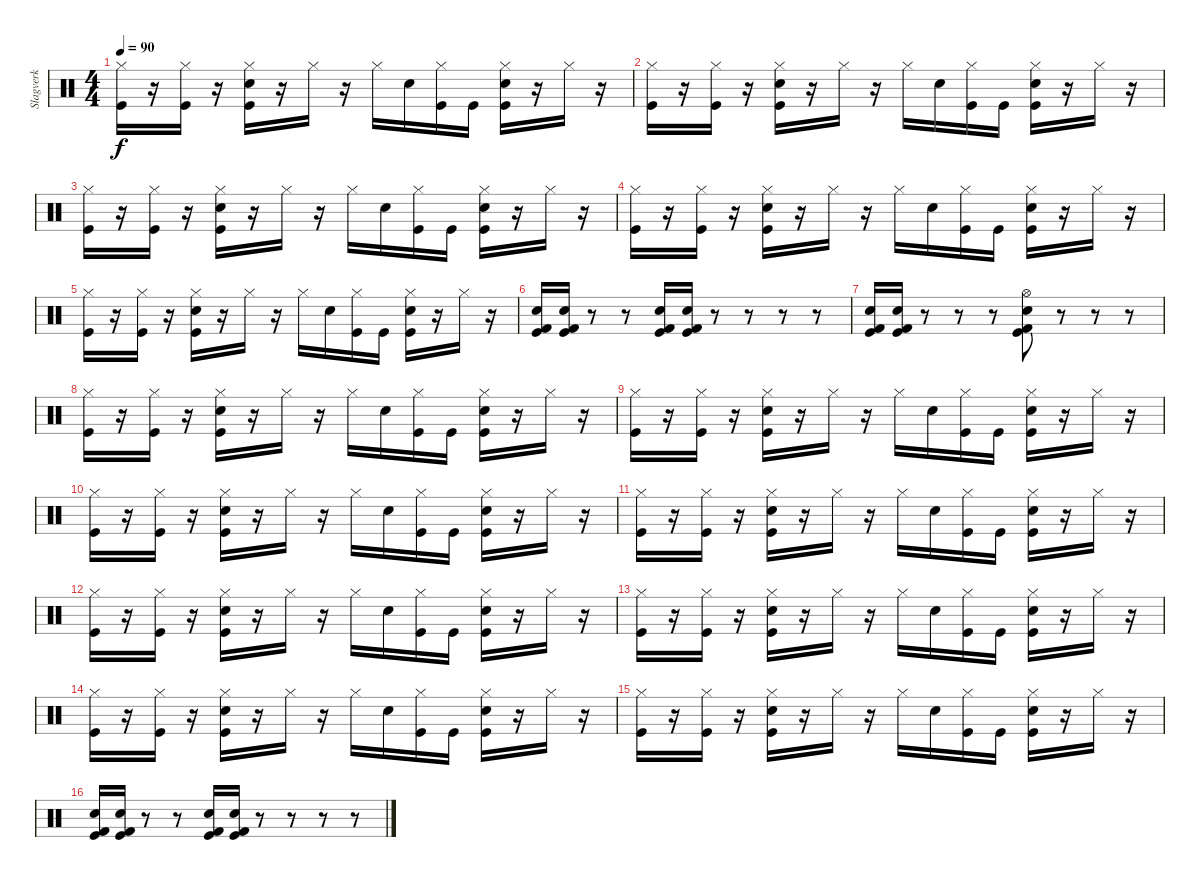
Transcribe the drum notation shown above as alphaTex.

\track ("Slagverk" "Slagverk") {instrument percussion}
\staff {score}
\articulation defaults
\ts (4 4)
\tempo 90
\clef neutral
\ks c
("Kick (hit)" "Hi-Hat (closed)").16{dy f} r.16 ("Kick (hit)" "Hi-Hat (closed)").16 r.16 ("Kick (hit)" "Hi-Hat (closed)" "Snare (hit) 2").16 r.16 "Hi-Hat (closed)".16 r.16 "Hi-Hat (closed)".16 "Snare (hit) 2".16 ("Kick (hit)" "Hi-Hat (closed)").16 "Kick (hit)".16 ("Kick (hit)" "Hi-Hat (closed)" "Snare (hit) 2").16 r.16 "Hi-Hat (closed)".16 r.16 |
("Kick (hit)" "Hi-Hat (closed)").16 r.16 ("Kick (hit)" "Hi-Hat (closed)").16 r.16 ("Kick (hit)" "Hi-Hat (closed)" "Snare (hit) 2").16 r.16 "Hi-Hat (closed)".16 r.16 "Hi-Hat (closed)".16 "Snare (hit) 2".16 ("Kick (hit)" "Hi-Hat (closed)").16 "Kick (hit)".16 ("Kick (hit)" "Hi-Hat (closed)" "Snare (hit) 2").16 r.16 "Hi-Hat (closed)".16 r.16 |
("Kick (hit)" "Hi-Hat (closed)").16 r.16 ("Kick (hit)" "Hi-Hat (closed)").16 r.16 ("Kick (hit)" "Hi-Hat (closed)" "Snare (hit) 2").16 r.16 "Hi-Hat (closed)".16 r.16 "Hi-Hat (closed)".16 "Snare (hit) 2".16 ("Kick (hit)" "Hi-Hat (closed)").16 "Kick (hit)".16 ("Kick (hit)" "Hi-Hat (closed)" "Snare (hit) 2").16 r.16 "Hi-Hat (closed)".16 r.16 |
("Kick (hit)" "Hi-Hat (closed)").16 r.16 ("Kick (hit)" "Hi-Hat (closed)").16 r.16 ("Kick (hit)" "Hi-Hat (closed)" "Snare (hit) 2").16 r.16 "Hi-Hat (closed)".16 r.16 "Hi-Hat (closed)".16 "Snare (hit) 2".16 ("Kick (hit)" "Hi-Hat (closed)").16 "Kick (hit)".16 ("Kick (hit)" "Hi-Hat (closed)" "Snare (hit) 2").16 r.16 "Hi-Hat (closed)".16 r.16 |
("Kick (hit)" "Hi-Hat (closed)").16 r.16 ("Kick (hit)" "Hi-Hat (closed)").16 r.16 ("Kick (hit)" "Hi-Hat (closed)" "Snare (hit) 2").16 r.16 "Hi-Hat (closed)".16 r.16 "Hi-Hat (closed)".16 "Snare (hit) 2".16 ("Kick (hit)" "Hi-Hat (closed)").16 "Kick (hit)".16 ("Kick (hit)" "Hi-Hat (closed)" "Snare (hit) 2").16 r.16 "Hi-Hat (closed)".16 r.16 |
("Snare (hit) 2" "Kick (hit)" "Kick (hit) 2").16 ("Snare (hit) 2" "Kick (hit)" "Kick (hit) 2").16 r.8 r.8 ("Snare (hit) 2" "Kick (hit)" "Kick (hit) 2").16 ("Snare (hit) 2" "Kick (hit)" "Kick (hit) 2").16 r.8 r.8 r.8 r.8 |
("Snare (hit) 2" "Kick (hit)" "Kick (hit) 2").16 ("Snare (hit) 2" "Kick (hit)" "Kick (hit) 2").16 r.8 r.8 r.8 ("Hi-Hat (open)" "Kick (hit)" "Snare (hit) 2" "Kick (hit) 2").8 r.8 r.8 r.8 |
("Kick (hit)" "Hi-Hat (closed)").16 r.16 ("Kick (hit)" "Hi-Hat (closed)").16 r.16 ("Kick (hit)" "Hi-Hat (closed)" "Snare (hit) 2").16 r.16 "Hi-Hat (closed)".16 r.16 "Hi-Hat (closed)".16 "Snare (hit) 2".16 ("Kick (hit)" "Hi-Hat (closed)").16 "Kick (hit)".16 ("Kick (hit)" "Hi-Hat (closed)" "Snare (hit) 2").16 r.16 "Hi-Hat (closed)".16 r.16 |
("Kick (hit)" "Hi-Hat (closed)").16 r.16 ("Kick (hit)" "Hi-Hat (closed)").16 r.16 ("Kick (hit)" "Hi-Hat (closed)" "Snare (hit) 2").16 r.16 "Hi-Hat (closed)".16 r.16 "Hi-Hat (closed)".16 "Snare (hit) 2".16 ("Kick (hit)" "Hi-Hat (closed)").16 "Kick (hit)".16 ("Kick (hit)" "Hi-Hat (closed)" "Snare (hit) 2").16 r.16 "Hi-Hat (closed)".16 r.16 |
("Kick (hit)" "Hi-Hat (closed)").16 r.16 ("Kick (hit)" "Hi-Hat (closed)").16 r.16 ("Kick (hit)" "Hi-Hat (closed)" "Snare (hit) 2").16 r.16 "Hi-Hat (closed)".16 r.16 "Hi-Hat (closed)".16 "Snare (hit) 2".16 ("Kick (hit)" "Hi-Hat (closed)").16 "Kick (hit)".16 ("Kick (hit)" "Hi-Hat (closed)" "Snare (hit) 2").16 r.16 "Hi-Hat (closed)".16 r.16 |
("Kick (hit)" "Hi-Hat (closed)").16 r.16 ("Kick (hit)" "Hi-Hat (closed)").16 r.16 ("Kick (hit)" "Hi-Hat (closed)" "Snare (hit) 2").16 r.16 "Hi-Hat (closed)".16 r.16 "Hi-Hat (closed)".16 "Snare (hit) 2".16 ("Kick (hit)" "Hi-Hat (closed)").16 "Kick (hit)".16 ("Kick (hit)" "Hi-Hat (closed)" "Snare (hit) 2").16 r.16 "Hi-Hat (closed)".16 r.16 |
("Kick (hit)" "Hi-Hat (closed)").16 r.16 ("Kick (hit)" "Hi-Hat (closed)").16 r.16 ("Kick (hit)" "Hi-Hat (closed)" "Snare (hit) 2").16 r.16 "Hi-Hat (closed)".16 r.16 "Hi-Hat (closed)".16 "Snare (hit) 2".16 ("Kick (hit)" "Hi-Hat (closed)").16 "Kick (hit)".16 ("Kick (hit)" "Hi-Hat (closed)" "Snare (hit) 2").16 r.16 "Hi-Hat (closed)".16 r.16 |
("Kick (hit)" "Hi-Hat (closed)").16 r.16 ("Kick (hit)" "Hi-Hat (closed)").16 r.16 ("Kick (hit)" "Hi-Hat (closed)" "Snare (hit) 2").16 r.16 "Hi-Hat (closed)".16 r.16 "Hi-Hat (closed)".16 "Snare (hit) 2".16 ("Kick (hit)" "Hi-Hat (closed)").16 "Kick (hit)".16 ("Kick (hit)" "Hi-Hat (closed)" "Snare (hit) 2").16 r.16 "Hi-Hat (closed)".16 r.16 |
("Kick (hit)" "Hi-Hat (closed)").16 r.16 ("Kick (hit)" "Hi-Hat (closed)").16 r.16 ("Kick (hit)" "Hi-Hat (closed)" "Snare (hit) 2").16 r.16 "Hi-Hat (closed)".16 r.16 "Hi-Hat (closed)".16 "Snare (hit) 2".16 ("Kick (hit)" "Hi-Hat (closed)").16 "Kick (hit)".16 ("Kick (hit)" "Hi-Hat (closed)" "Snare (hit) 2").16 r.16 "Hi-Hat (closed)".16 r.16 |
("Kick (hit)" "Hi-Hat (closed)").16 r.16 ("Kick (hit)" "Hi-Hat (closed)").16 r.16 ("Kick (hit)" "Hi-Hat (closed)" "Snare (hit) 2").16 r.16 "Hi-Hat (closed)".16 r.16 "Hi-Hat (closed)".16 "Snare (hit) 2".16 ("Kick (hit)" "Hi-Hat (closed)").16 "Kick (hit)".16 ("Kick (hit)" "Hi-Hat (closed)" "Snare (hit) 2").16 r.16 "Hi-Hat (closed)".16 r.16 |
("Snare (hit) 2" "Kick (hit)" "Kick (hit) 2").16 ("Snare (hit) 2" "Kick (hit)" "Kick (hit) 2").16 r.8 r.8 ("Snare (hit) 2" "Kick (hit)" "Kick (hit) 2").16 ("Snare (hit) 2" "Kick (hit)" "Kick (hit) 2").16 r.8 r.8 r.8 r.8
